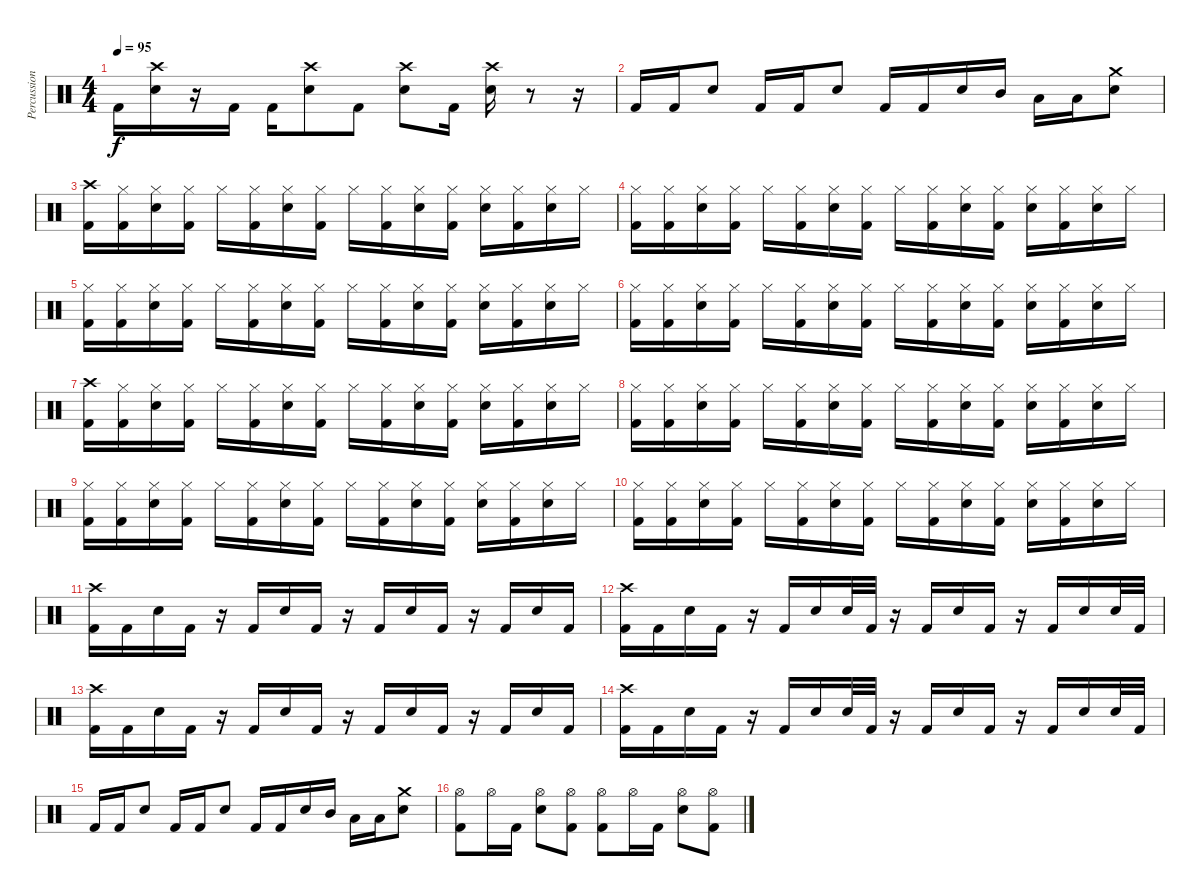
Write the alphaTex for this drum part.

\track ("Percussion" "Percussion") {instrument percussion}
\staff {score}
\articulation defaults
\ts (4 4)
\tempo 95
\clef neutral
\ks c "Kick (hit) 2".16{dy f}
("Crash high (hit)" "Electric Snare (hit)").16 r.16 "Kick (hit) 2".16 "Kick (hit) 2".16 ("Crash high (hit)" "Electric Snare (hit)").8 "Kick (hit) 2".8 ("Crash high (hit)" "Electric Snare (hit)").8 "Kick (hit) 2".16 ("Crash high (hit)" "Electric Snare (hit)").16 r.8 r.16 |
"Kick (hit) 2".16 "Kick (hit) 2".16 "Electric Snare (hit)".8 "Kick (hit) 2".16 "Kick (hit) 2".16 "Electric Snare (hit)".8 "Kick (hit) 2".16 "Kick (hit) 2".16 "Electric Snare (hit)".16 "Mid Tom (hit)".16 "Low Tom (hit)".16 "Low Tom (hit)".16 ("Crash medium (hit)" "Electric Snare (hit)").8 |
("Crash high (hit)" "Kick (hit) 2").16 ("Hi-Hat (closed)" "Kick (hit) 2").16 ("Hi-Hat (closed)" "Electric Snare (hit)").16 ("Hi-Hat (closed)" "Kick (hit) 2").16 "Hi-Hat (closed)".16 ("Hi-Hat (closed)" "Kick (hit) 2").16 ("Hi-Hat (closed)" "Electric Snare (hit)").16 ("Hi-Hat (closed)" "Kick (hit) 2").16 "Hi-Hat (closed)".16 ("Hi-Hat (closed)" "Kick (hit) 2").16 ("Hi-Hat (closed)" "Electric Snare (hit)").16 ("Hi-Hat (closed)" "Kick (hit) 2").16 ("Hi-Hat (closed)" "Electric Snare (hit)").16 ("Hi-Hat (closed)" "Kick (hit) 2").16 ("Hi-Hat (closed)" "Electric Snare (hit)").16 "Hi-Hat (closed)".16 |
("Hi-Hat (closed)" "Kick (hit) 2").16 ("Hi-Hat (closed)" "Kick (hit) 2").16 ("Hi-Hat (closed)" "Electric Snare (hit)").16 ("Hi-Hat (closed)" "Kick (hit) 2").16 "Hi-Hat (closed)".16 ("Hi-Hat (closed)" "Kick (hit) 2").16 ("Hi-Hat (closed)" "Electric Snare (hit)").16 ("Hi-Hat (closed)" "Kick (hit) 2").16 "Hi-Hat (closed)".16 ("Hi-Hat (closed)" "Kick (hit) 2").16 ("Hi-Hat (closed)" "Electric Snare (hit)").16 ("Hi-Hat (closed)" "Kick (hit) 2").16 ("Hi-Hat (closed)" "Electric Snare (hit)").16 ("Hi-Hat (closed)" "Kick (hit) 2").16 ("Hi-Hat (closed)" "Electric Snare (hit)").16 "Hi-Hat (closed)".16 |
("Hi-Hat (closed)" "Kick (hit) 2").16 ("Hi-Hat (closed)" "Kick (hit) 2").16 ("Hi-Hat (closed)" "Electric Snare (hit)").16 ("Hi-Hat (closed)" "Kick (hit) 2").16 "Hi-Hat (closed)".16 ("Hi-Hat (closed)" "Kick (hit) 2").16 ("Hi-Hat (closed)" "Electric Snare (hit)").16 ("Hi-Hat (closed)" "Kick (hit) 2").16 "Hi-Hat (closed)".16 ("Hi-Hat (closed)" "Kick (hit) 2").16 ("Hi-Hat (closed)" "Electric Snare (hit)").16 ("Hi-Hat (closed)" "Kick (hit) 2").16 ("Hi-Hat (closed)" "Electric Snare (hit)").16 ("Hi-Hat (closed)" "Kick (hit) 2").16 ("Hi-Hat (closed)" "Electric Snare (hit)").16 "Hi-Hat (closed)".16 |
("Hi-Hat (closed)" "Kick (hit) 2").16 ("Hi-Hat (closed)" "Kick (hit) 2").16 ("Hi-Hat (closed)" "Electric Snare (hit)").16 ("Hi-Hat (closed)" "Kick (hit) 2").16 "Hi-Hat (closed)".16 ("Hi-Hat (closed)" "Kick (hit) 2").16 ("Hi-Hat (closed)" "Electric Snare (hit)").16 ("Hi-Hat (closed)" "Kick (hit) 2").16 "Hi-Hat (closed)".16 ("Hi-Hat (closed)" "Kick (hit) 2").16 ("Hi-Hat (closed)" "Electric Snare (hit)").16 ("Hi-Hat (closed)" "Kick (hit) 2").16 ("Hi-Hat (closed)" "Electric Snare (hit)").16 ("Hi-Hat (closed)" "Kick (hit) 2").16 ("Hi-Hat (closed)" "Electric Snare (hit)").16 "Hi-Hat (closed)".16 |
("Crash high (hit)" "Kick (hit) 2").16 ("Hi-Hat (closed)" "Kick (hit) 2").16 ("Hi-Hat (closed)" "Electric Snare (hit)").16 ("Hi-Hat (closed)" "Kick (hit) 2").16 "Hi-Hat (closed)".16 ("Hi-Hat (closed)" "Kick (hit) 2").16 ("Hi-Hat (closed)" "Electric Snare (hit)").16 ("Hi-Hat (closed)" "Kick (hit) 2").16 "Hi-Hat (closed)".16 ("Hi-Hat (closed)" "Kick (hit) 2").16 ("Hi-Hat (closed)" "Electric Snare (hit)").16 ("Hi-Hat (closed)" "Kick (hit) 2").16 ("Hi-Hat (closed)" "Electric Snare (hit)").16 ("Hi-Hat (closed)" "Kick (hit) 2").16 ("Hi-Hat (closed)" "Electric Snare (hit)").16 "Hi-Hat (closed)".16 |
("Hi-Hat (closed)" "Kick (hit) 2").16 ("Hi-Hat (closed)" "Kick (hit) 2").16 ("Hi-Hat (closed)" "Electric Snare (hit)").16 ("Hi-Hat (closed)" "Kick (hit) 2").16 "Hi-Hat (closed)".16 ("Hi-Hat (closed)" "Kick (hit) 2").16 ("Hi-Hat (closed)" "Electric Snare (hit)").16 ("Hi-Hat (closed)" "Kick (hit) 2").16 "Hi-Hat (closed)".16 ("Hi-Hat (closed)" "Kick (hit) 2").16 ("Hi-Hat (closed)" "Electric Snare (hit)").16 ("Hi-Hat (closed)" "Kick (hit) 2").16 ("Hi-Hat (closed)" "Electric Snare (hit)").16 ("Hi-Hat (closed)" "Kick (hit) 2").16 ("Hi-Hat (closed)" "Electric Snare (hit)").16 "Hi-Hat (closed)".16 |
("Hi-Hat (closed)" "Kick (hit) 2").16 ("Hi-Hat (closed)" "Kick (hit) 2").16 ("Hi-Hat (closed)" "Electric Snare (hit)").16 ("Hi-Hat (closed)" "Kick (hit) 2").16 "Hi-Hat (closed)".16 ("Hi-Hat (closed)" "Kick (hit) 2").16 ("Hi-Hat (closed)" "Electric Snare (hit)").16 ("Hi-Hat (closed)" "Kick (hit) 2").16 "Hi-Hat (closed)".16 ("Hi-Hat (closed)" "Kick (hit) 2").16 ("Hi-Hat (closed)" "Electric Snare (hit)").16 ("Hi-Hat (closed)" "Kick (hit) 2").16 ("Hi-Hat (closed)" "Electric Snare (hit)").16 ("Hi-Hat (closed)" "Kick (hit) 2").16 ("Hi-Hat (closed)" "Electric Snare (hit)").16 "Hi-Hat (closed)".16 |
("Hi-Hat (closed)" "Kick (hit) 2").16 ("Hi-Hat (closed)" "Kick (hit) 2").16 ("Hi-Hat (closed)" "Electric Snare (hit)").16 ("Hi-Hat (closed)" "Kick (hit) 2").16 "Hi-Hat (closed)".16 ("Hi-Hat (closed)" "Kick (hit) 2").16 ("Hi-Hat (closed)" "Electric Snare (hit)").16 ("Hi-Hat (closed)" "Kick (hit) 2").16 "Hi-Hat (closed)".16 ("Hi-Hat (closed)" "Kick (hit) 2").16 ("Hi-Hat (closed)" "Electric Snare (hit)").16 ("Hi-Hat (closed)" "Kick (hit) 2").16 ("Hi-Hat (closed)" "Electric Snare (hit)").16 ("Hi-Hat (closed)" "Kick (hit) 2").16 ("Hi-Hat (closed)" "Electric Snare (hit)").16 "Hi-Hat (closed)".16 |
("Crash high (hit)" "Kick (hit) 2").16 "Kick (hit) 2".16 "Electric Snare (hit)".16 "Kick (hit) 2".16 r.16 "Kick (hit) 2".16 "Electric Snare (hit)".16 "Kick (hit) 2".16 r.16 "Kick (hit) 2".16 "Electric Snare (hit)".16 "Kick (hit) 2".16 r.16 "Kick (hit) 2".16 "Electric Snare (hit)".16 "Kick (hit) 2".16 |
("Crash high (hit)" "Kick (hit) 2").16 "Kick (hit) 2".16 "Electric Snare (hit)".16 "Kick (hit) 2".16 r.16 "Kick (hit) 2".16 "Electric Snare (hit)".16 "Electric Snare (hit)".32 "Kick (hit) 2".32 r.16 "Kick (hit) 2".16 "Electric Snare (hit)".16 "Kick (hit) 2".16 r.16 "Kick (hit) 2".16 "Electric Snare (hit)".16 "Electric Snare (hit)".32 "Kick (hit) 2".32 |
("Crash high (hit)" "Kick (hit) 2").16 "Kick (hit) 2".16 "Electric Snare (hit)".16 "Kick (hit) 2".16 r.16 "Kick (hit) 2".16 "Electric Snare (hit)".16 "Kick (hit) 2".16 r.16 "Kick (hit) 2".16 "Electric Snare (hit)".16 "Kick (hit) 2".16 r.16 "Kick (hit) 2".16 "Electric Snare (hit)".16 "Kick (hit) 2".16 |
("Crash high (hit)" "Kick (hit) 2").16 "Kick (hit) 2".16 "Electric Snare (hit)".16 "Kick (hit) 2".16 r.16 "Kick (hit) 2".16 "Electric Snare (hit)".16 "Electric Snare (hit)".32 "Kick (hit) 2".32 r.16 "Kick (hit) 2".16 "Electric Snare (hit)".16 "Kick (hit) 2".16 r.16 "Kick (hit) 2".16 "Electric Snare (hit)".16 "Electric Snare (hit)".32 "Kick (hit) 2".32 |
"Kick (hit) 2".16 "Kick (hit) 2".16 "Electric Snare (hit)".8 "Kick (hit) 2".16 "Kick (hit) 2".16 "Electric Snare (hit)".8 "Kick (hit) 2".16 "Kick (hit) 2".16 "Electric Snare (hit)".16 "Mid Tom (hit)".16 "Low Tom (hit)".16 "Low Tom (hit)".16 ("Crash medium (hit)" "Electric Snare (hit)").8 |
("Hi-Hat (open)" "Kick (hit) 2").8 "Hi-Hat (open)".16 "Kick (hit) 2".16 ("Hi-Hat (open)" "Electric Snare (hit)").8 ("Hi-Hat (open)" "Kick (hit) 2").8 ("Hi-Hat (open)" "Kick (hit) 2").8 "Hi-Hat (open)".16 "Kick (hit) 2".16 ("Hi-Hat (open)" "Electric Snare (hit)").8 ("Hi-Hat (open)" "Kick (hit) 2").8
